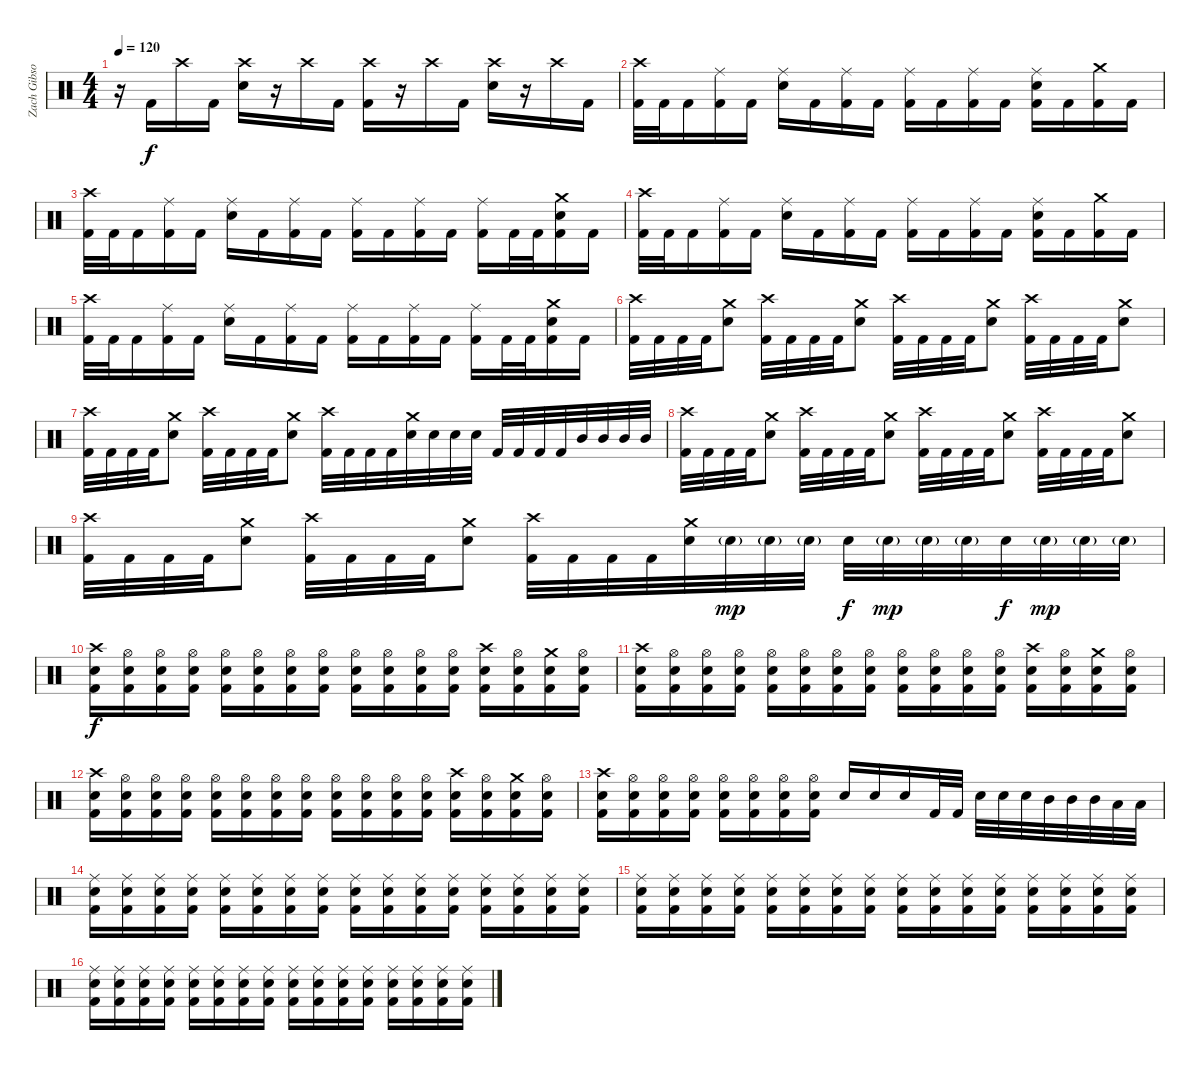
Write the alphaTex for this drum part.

\track ("Zach Gibson" "Zach Gibso") {instrument percussion}
\staff {score}
\articulation defaults
\ts (4 4)
\tempo 120
\clef neutral
\ks c
r.16{dy f} "Kick (hit) 2".16 "Crash high (hit)".16 "Kick (hit) 2".16 ("Crash high (hit)" "Electric Snare (hit)").16 r.16 "Crash high (hit)".16 "Kick (hit) 2".16 ("Crash high (hit)" "Kick (hit) 2").16 r.16 "Crash high (hit)".16 "Kick (hit) 2".16 ("Crash high (hit)" "Electric Snare (hit)").16 r.16 "Crash high (hit)".16 "Kick (hit) 2".16 |
("Crash high (hit)" "Kick (hit) 2").32 "Kick (hit) 2".32 "Kick (hit) 2".16 ("Ride (middle)" "Kick (hit) 2").16 "Kick (hit) 2".16 ("Ride (middle)" "Electric Snare (hit)").16 "Kick (hit) 2".16 ("Ride (middle)" "Kick (hit) 2").16 "Kick (hit) 2".16 ("Ride (middle)" "Kick (hit) 2").16 "Kick (hit) 2".16 ("Ride (middle)" "Kick (hit) 2").16 "Kick (hit) 2".16 ("Ride (middle)" "Electric Snare (hit)" "Kick (hit) 2").16 "Kick (hit) 2".16 ("Crash medium (hit)" "Kick (hit) 2").16 "Kick (hit) 2".16 |
("Crash high (hit)" "Kick (hit) 2").32 "Kick (hit) 2".32 "Kick (hit) 2".16 ("Ride (middle)" "Kick (hit) 2").16 "Kick (hit) 2".16 ("Ride (middle)" "Electric Snare (hit)").16 "Kick (hit) 2".16 ("Ride (middle)" "Kick (hit) 2").16 "Kick (hit) 2".16 ("Ride (middle)" "Kick (hit) 2").16 "Kick (hit) 2".16 ("Ride (middle)" "Kick (hit) 2").16 "Kick (hit) 2".16 ("Ride (middle)" "Kick (hit) 2").16 "Kick (hit) 2".32 "Kick (hit) 2".32 ("Crash medium (hit)" "Electric Snare (hit)" "Kick (hit) 2").16 "Kick (hit) 2".16 |
("Crash high (hit)" "Kick (hit) 2").32 "Kick (hit) 2".32 "Kick (hit) 2".16 ("Ride (middle)" "Kick (hit) 2").16 "Kick (hit) 2".16 ("Ride (middle)" "Electric Snare (hit)").16 "Kick (hit) 2".16 ("Ride (middle)" "Kick (hit) 2").16 "Kick (hit) 2".16 ("Ride (middle)" "Kick (hit) 2").16 "Kick (hit) 2".16 ("Ride (middle)" "Kick (hit) 2").16 "Kick (hit) 2".16 ("Ride (middle)" "Electric Snare (hit)" "Kick (hit) 2").16 "Kick (hit) 2".16 ("Crash medium (hit)" "Kick (hit) 2").16 "Kick (hit) 2".16 |
("Crash high (hit)" "Kick (hit) 2").32 "Kick (hit) 2".32 "Kick (hit) 2".16 ("Ride (middle)" "Kick (hit) 2").16 "Kick (hit) 2".16 ("Ride (middle)" "Electric Snare (hit)").16 "Kick (hit) 2".16 ("Ride (middle)" "Kick (hit) 2").16 "Kick (hit) 2".16 ("Ride (middle)" "Kick (hit) 2").16 "Kick (hit) 2".16 ("Ride (middle)" "Kick (hit) 2").16 "Kick (hit) 2".16 ("Ride (middle)" "Kick (hit) 2").16 "Kick (hit) 2".32 "Kick (hit) 2".32 ("Crash medium (hit)" "Electric Snare (hit)" "Kick (hit) 2").16 "Kick (hit) 2".16 |
("Crash high (hit)" "Kick (hit) 2").32 "Kick (hit) 2".32 "Kick (hit) 2".32 "Kick (hit) 2".32 ("Crash medium (hit)" "Electric Snare (hit)").8 ("Crash high (hit)" "Kick (hit) 2").32 "Kick (hit) 2".32 "Kick (hit) 2".32 "Kick (hit) 2".32 ("Crash medium (hit)" "Electric Snare (hit)").8 ("Crash high (hit)" "Kick (hit) 2").32 "Kick (hit) 2".32 "Kick (hit) 2".32 "Kick (hit) 2".32 ("Crash medium (hit)" "Electric Snare (hit)").8 ("Crash high (hit)" "Kick (hit) 2").32 "Kick (hit) 2".32 "Kick (hit) 2".32 "Kick (hit) 2".32 ("Crash medium (hit)" "Electric Snare (hit)").8 |
("Crash high (hit)" "Kick (hit) 2").32 "Kick (hit) 2".32 "Kick (hit) 2".32 "Kick (hit) 2".32 ("Crash medium (hit)" "Electric Snare (hit)").8 ("Crash high (hit)" "Kick (hit) 2").32 "Kick (hit) 2".32 "Kick (hit) 2".32 "Kick (hit) 2".32 ("Crash medium (hit)" "Electric Snare (hit)").8 ("Crash high (hit)" "Kick (hit) 2").32 "Kick (hit) 2".32 "Kick (hit) 2".32 "Kick (hit) 2".32 ("Crash medium (hit)" "Electric Snare (hit)").32 "Electric Snare (hit)".32 "Electric Snare (hit)".32 "Electric Snare (hit)".32 "Kick (hit) 2".32 "Kick (hit) 2".32 "Kick (hit) 2".32 "Kick (hit) 2".32 "Mid Tom (hit)".32 "Mid Tom (hit)".32 "Mid Tom (hit)".32 "Mid Tom (hit)".32 |
("Crash high (hit)" "Kick (hit) 2").32 "Kick (hit) 2".32 "Kick (hit) 2".32 "Kick (hit) 2".32 ("Crash medium (hit)" "Electric Snare (hit)").8 ("Crash high (hit)" "Kick (hit) 2").32 "Kick (hit) 2".32 "Kick (hit) 2".32 "Kick (hit) 2".32 ("Crash medium (hit)" "Electric Snare (hit)").8 ("Crash high (hit)" "Kick (hit) 2").32 "Kick (hit) 2".32 "Kick (hit) 2".32 "Kick (hit) 2".32 ("Crash medium (hit)" "Electric Snare (hit)").8 ("Crash high (hit)" "Kick (hit) 2").32 "Kick (hit) 2".32 "Kick (hit) 2".32 "Kick (hit) 2".32 ("Crash medium (hit)" "Electric Snare (hit)").8 |
("Crash high (hit)" "Kick (hit) 2").32 "Kick (hit) 2".32 "Kick (hit) 2".32 "Kick (hit) 2".32 ("Crash medium (hit)" "Electric Snare (hit)").8 ("Crash high (hit)" "Kick (hit) 2").32 "Kick (hit) 2".32 "Kick (hit) 2".32 "Kick (hit) 2".32 ("Crash medium (hit)" "Electric Snare (hit)").8 ("Crash high (hit)" "Kick (hit) 2").32 "Kick (hit) 2".32 "Kick (hit) 2".32 "Kick (hit) 2".32 ("Crash medium (hit)" "Electric Snare (hit)").32 "Electric Snare (hit)"{g}.32{dy mp} "Electric Snare (hit)"{g}.32 "Electric Snare (hit)"{g}.32 "Electric Snare (hit)".32{dy f} "Electric Snare (hit)"{g}.32{dy mp} "Electric Snare (hit)"{g}.32 "Electric Snare (hit)"{g}.32 "Electric Snare (hit)".32{dy f} "Electric Snare (hit)"{g}.32{dy mp} "Electric Snare (hit)"{g}.32 "Electric Snare (hit)"{g}.32 |
("Crash high (hit)" "Electric Snare (hit)" "Kick (hit) 2").16{dy f} ("Hi-Hat (open)" "Electric Snare (hit)" "Kick (hit) 2").16 ("Hi-Hat (open)" "Electric Snare (hit)" "Kick (hit) 2").16 ("Hi-Hat (open)" "Electric Snare (hit)" "Kick (hit) 2").16 ("Hi-Hat (open)" "Electric Snare (hit)" "Kick (hit) 2").16 ("Hi-Hat (open)" "Electric Snare (hit)" "Kick (hit) 2").16 ("Hi-Hat (open)" "Electric Snare (hit)" "Kick (hit) 2").16 ("Hi-Hat (open)" "Electric Snare (hit)" "Kick (hit) 2").16 ("Hi-Hat (open)" "Electric Snare (hit)" "Kick (hit) 2").16 ("Hi-Hat (open)" "Electric Snare (hit)" "Kick (hit) 2").16 ("Hi-Hat (open)" "Electric Snare (hit)" "Kick (hit) 2").16 ("Hi-Hat (open)" "Electric Snare (hit)" "Kick (hit) 2").16 ("Crash high (hit)" "Electric Snare (hit)" "Kick (hit) 2").16 ("Hi-Hat (open)" "Electric Snare (hit)" "Kick (hit) 2").16 ("Crash medium (hit)" "Electric Snare (hit)" "Kick (hit) 2").16 ("Hi-Hat (open)" "Electric Snare (hit)" "Kick (hit) 2").16 |
("Crash high (hit)" "Electric Snare (hit)" "Kick (hit) 2").16 ("Hi-Hat (open)" "Electric Snare (hit)" "Kick (hit) 2").16 ("Hi-Hat (open)" "Electric Snare (hit)" "Kick (hit) 2").16 ("Hi-Hat (open)" "Electric Snare (hit)" "Kick (hit) 2").16 ("Hi-Hat (open)" "Electric Snare (hit)" "Kick (hit) 2").16 ("Hi-Hat (open)" "Electric Snare (hit)" "Kick (hit) 2").16 ("Hi-Hat (open)" "Electric Snare (hit)" "Kick (hit) 2").16 ("Hi-Hat (open)" "Electric Snare (hit)" "Kick (hit) 2").16 ("Hi-Hat (open)" "Electric Snare (hit)" "Kick (hit) 2").16 ("Hi-Hat (open)" "Electric Snare (hit)" "Kick (hit) 2").16 ("Hi-Hat (open)" "Electric Snare (hit)" "Kick (hit) 2").16 ("Hi-Hat (open)" "Electric Snare (hit)" "Kick (hit) 2").16 ("Crash high (hit)" "Electric Snare (hit)" "Kick (hit) 2").16 ("Hi-Hat (open)" "Electric Snare (hit)" "Kick (hit) 2").16 ("Crash medium (hit)" "Electric Snare (hit)" "Kick (hit) 2").16 ("Hi-Hat (open)" "Electric Snare (hit)" "Kick (hit) 2").16 |
("Crash high (hit)" "Electric Snare (hit)" "Kick (hit) 2").16 ("Hi-Hat (open)" "Electric Snare (hit)" "Kick (hit) 2").16 ("Hi-Hat (open)" "Electric Snare (hit)" "Kick (hit) 2").16 ("Hi-Hat (open)" "Electric Snare (hit)" "Kick (hit) 2").16 ("Hi-Hat (open)" "Electric Snare (hit)" "Kick (hit) 2").16 ("Hi-Hat (open)" "Electric Snare (hit)" "Kick (hit) 2").16 ("Hi-Hat (open)" "Electric Snare (hit)" "Kick (hit) 2").16 ("Hi-Hat (open)" "Electric Snare (hit)" "Kick (hit) 2").16 ("Hi-Hat (open)" "Electric Snare (hit)" "Kick (hit) 2").16 ("Hi-Hat (open)" "Electric Snare (hit)" "Kick (hit) 2").16 ("Hi-Hat (open)" "Electric Snare (hit)" "Kick (hit) 2").16 ("Hi-Hat (open)" "Electric Snare (hit)" "Kick (hit) 2").16 ("Crash high (hit)" "Electric Snare (hit)" "Kick (hit) 2").16 ("Hi-Hat (open)" "Electric Snare (hit)" "Kick (hit) 2").16 ("Crash medium (hit)" "Electric Snare (hit)" "Kick (hit) 2").16 ("Hi-Hat (open)" "Electric Snare (hit)" "Kick (hit) 2").16 |
("Crash high (hit)" "Electric Snare (hit)" "Kick (hit) 2").16 ("Hi-Hat (open)" "Electric Snare (hit)" "Kick (hit) 2").16 ("Hi-Hat (open)" "Electric Snare (hit)" "Kick (hit) 2").16 ("Hi-Hat (open)" "Electric Snare (hit)" "Kick (hit) 2").16 ("Hi-Hat (open)" "Electric Snare (hit)" "Kick (hit) 2").16 ("Hi-Hat (open)" "Electric Snare (hit)" "Kick (hit) 2").16 ("Hi-Hat (open)" "Electric Snare (hit)" "Kick (hit) 2").16 ("Hi-Hat (open)" "Electric Snare (hit)" "Kick (hit) 2").16 "Electric Snare (hit)".16 "Electric Snare (hit)".16 "Electric Snare (hit)".16 "Kick (hit) 2".32 "Kick (hit) 2".32 "Electric Snare (hit)".32 "Electric Snare (hit)".32 "Electric Snare (hit)".32 "Mid Tom (hit)".32 "Mid Tom (hit)".32 "Mid Tom (hit)".32 "Low Tom (hit)".32 "Low Tom (hit)".32 |
("Ride (middle)" "Electric Snare (hit)" "Kick (hit) 2").16 ("Ride (middle)" "Electric Snare (hit)" "Kick (hit) 2").16 ("Ride (middle)" "Electric Snare (hit)" "Kick (hit) 2").16 ("Ride (middle)" "Electric Snare (hit)" "Kick (hit) 2").16 ("Ride (middle)" "Electric Snare (hit)" "Kick (hit) 2").16 ("Ride (middle)" "Electric Snare (hit)" "Kick (hit) 2").16 ("Ride (middle)" "Electric Snare (hit)" "Kick (hit) 2").16 ("Ride (middle)" "Electric Snare (hit)" "Kick (hit) 2").16 ("Ride (middle)" "Electric Snare (hit)" "Kick (hit) 2").16 ("Ride (middle)" "Electric Snare (hit)" "Kick (hit) 2").16 ("Ride (middle)" "Electric Snare (hit)" "Kick (hit) 2").16 ("Ride (middle)" "Electric Snare (hit)" "Kick (hit) 2").16 ("Ride (middle)" "Electric Snare (hit)" "Kick (hit) 2").16 ("Ride (middle)" "Electric Snare (hit)" "Kick (hit) 2").16 ("Ride (middle)" "Electric Snare (hit)" "Kick (hit) 2").16 ("Ride (middle)" "Electric Snare (hit)" "Kick (hit) 2").16 |
("Ride (middle)" "Electric Snare (hit)" "Kick (hit) 2").16 ("Ride (middle)" "Electric Snare (hit)" "Kick (hit) 2").16 ("Ride (middle)" "Electric Snare (hit)" "Kick (hit) 2").16 ("Ride (middle)" "Electric Snare (hit)" "Kick (hit) 2").16 ("Ride (middle)" "Electric Snare (hit)" "Kick (hit) 2").16 ("Ride (middle)" "Electric Snare (hit)" "Kick (hit) 2").16 ("Ride (middle)" "Electric Snare (hit)" "Kick (hit) 2").16 ("Ride (middle)" "Electric Snare (hit)" "Kick (hit) 2").16 ("Ride (middle)" "Electric Snare (hit)" "Kick (hit) 2").16 ("Ride (middle)" "Electric Snare (hit)" "Kick (hit) 2").16 ("Ride (middle)" "Electric Snare (hit)" "Kick (hit) 2").16 ("Ride (middle)" "Electric Snare (hit)" "Kick (hit) 2").16 ("Ride (middle)" "Electric Snare (hit)" "Kick (hit) 2").16 ("Ride (middle)" "Electric Snare (hit)" "Kick (hit) 2").16 ("Ride (middle)" "Electric Snare (hit)" "Kick (hit) 2").16 ("Ride (middle)" "Electric Snare (hit)" "Kick (hit) 2").16 |
("Ride (middle)" "Electric Snare (hit)" "Kick (hit) 2").16 ("Ride (middle)" "Electric Snare (hit)" "Kick (hit) 2").16 ("Ride (middle)" "Electric Snare (hit)" "Kick (hit) 2").16 ("Ride (middle)" "Electric Snare (hit)" "Kick (hit) 2").16 ("Ride (middle)" "Electric Snare (hit)" "Kick (hit) 2").16 ("Ride (middle)" "Electric Snare (hit)" "Kick (hit) 2").16 ("Ride (middle)" "Electric Snare (hit)" "Kick (hit) 2").16 ("Ride (middle)" "Electric Snare (hit)" "Kick (hit) 2").16 ("Ride (middle)" "Electric Snare (hit)" "Kick (hit) 2").16 ("Ride (middle)" "Electric Snare (hit)" "Kick (hit) 2").16 ("Ride (middle)" "Electric Snare (hit)" "Kick (hit) 2").16 ("Ride (middle)" "Electric Snare (hit)" "Kick (hit) 2").16 ("Ride (middle)" "Electric Snare (hit)" "Kick (hit) 2").16 ("Ride (middle)" "Electric Snare (hit)" "Kick (hit) 2").16 ("Ride (middle)" "Electric Snare (hit)" "Kick (hit) 2").16 ("Ride (middle)" "Electric Snare (hit)" "Kick (hit) 2").16
